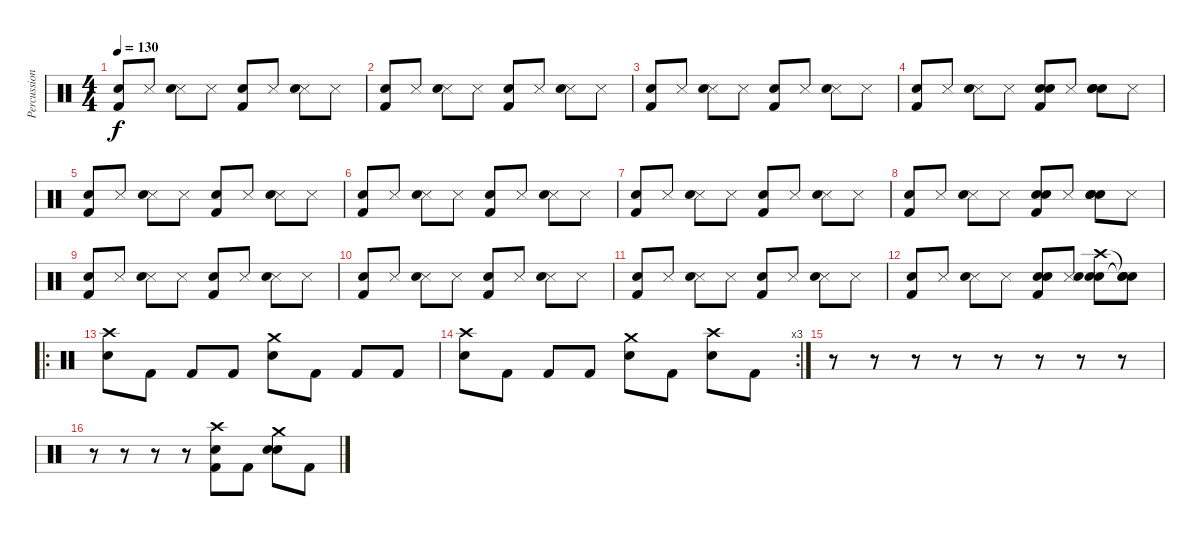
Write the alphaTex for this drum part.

\track ("Percussions" "Percussion") {instrument percussion}
\staff {score}
\articulation defaults
\ts (4 4)
\tempo 130
\clef neutral
\ks c
("Metronome (bell)" "Kick (hit) 2").8{dy f} "Snare (side stick) 3".8 ("Snare (side stick) 3" "Snare (hit) 2").8 "Snare (side stick) 3".8 ("Metronome (bell)" "Kick (hit) 2").8 "Snare (side stick) 3".8 ("Snare (side stick) 3" "Snare (hit) 2").8 "Snare (side stick) 3".8 |
("Metronome (bell)" "Kick (hit) 2").8 "Snare (side stick) 3".8 ("Snare (side stick) 3" "Snare (hit) 2").8 "Snare (side stick) 3".8 ("Metronome (bell)" "Kick (hit) 2").8 "Snare (side stick) 3".8 ("Snare (side stick) 3" "Snare (hit) 2").8 "Snare (side stick) 3".8 |
("Metronome (bell)" "Kick (hit) 2").8 "Snare (side stick) 3".8 ("Snare (side stick) 3" "Snare (hit) 2").8 "Snare (side stick) 3".8 ("Metronome (bell)" "Kick (hit) 2").8 "Snare (side stick) 3".8 ("Snare (side stick) 3" "Snare (hit) 2").8 "Snare (side stick) 3".8 |
("Metronome (bell)" "Kick (hit) 2").8 "Snare (side stick) 3".8 ("Snare (side stick) 3" "Snare (hit) 2").8 "Snare (side stick) 3".8 ("Metronome (bell)" "Metronome (bell)" "Kick (hit) 2").8 "Snare (side stick) 3".8 ("Metronome (bell)" "Metronome (bell)" "Snare (hit) 2").8 "Snare (side stick) 3".8 |
("Metronome (bell)" "Kick (hit) 2").8 "Snare (side stick) 3".8 ("Snare (side stick) 3" "Snare (hit) 2").8 "Snare (side stick) 3".8 ("Metronome (bell)" "Kick (hit) 2").8 "Snare (side stick) 3".8 ("Snare (side stick) 3" "Snare (hit) 2").8 "Snare (side stick) 3".8 |
("Metronome (bell)" "Kick (hit) 2").8 "Snare (side stick) 3".8 ("Snare (side stick) 3" "Snare (hit) 2").8 "Snare (side stick) 3".8 ("Metronome (bell)" "Kick (hit) 2").8 "Snare (side stick) 3".8 ("Snare (side stick) 3" "Snare (hit) 2").8 "Snare (side stick) 3".8 |
("Metronome (bell)" "Kick (hit) 2").8 "Snare (side stick) 3".8 ("Snare (side stick) 3" "Snare (hit) 2").8 "Snare (side stick) 3".8 ("Metronome (bell)" "Kick (hit) 2").8 "Snare (side stick) 3".8 ("Snare (side stick) 3" "Snare (hit) 2").8 "Snare (side stick) 3".8 |
("Metronome (bell)" "Kick (hit) 2").8 "Snare (side stick) 3".8 ("Snare (side stick) 3" "Snare (hit) 2").8 "Snare (side stick) 3".8 ("Metronome (bell)" "Metronome (bell)" "Kick (hit) 2").8 "Snare (side stick) 3".8 ("Metronome (bell)" "Metronome (bell)" "Snare (hit) 2").8 "Snare (side stick) 3".8 |
("Metronome (bell)" "Kick (hit) 2").8 "Snare (side stick) 3".8 ("Snare (side stick) 3" "Snare (hit) 2").8 "Snare (side stick) 3".8 ("Metronome (bell)" "Kick (hit) 2").8 "Snare (side stick) 3".8 ("Snare (side stick) 3" "Snare (hit) 2").8 "Snare (side stick) 3".8 |
("Metronome (bell)" "Kick (hit) 2").8 "Snare (side stick) 3".8 ("Snare (side stick) 3" "Snare (hit) 2").8 "Snare (side stick) 3".8 ("Metronome (bell)" "Kick (hit) 2").8 "Snare (side stick) 3".8 ("Snare (side stick) 3" "Snare (hit) 2").8 "Snare (side stick) 3".8 |
("Metronome (bell)" "Kick (hit) 2").8 "Snare (side stick) 3".8 ("Snare (side stick) 3" "Snare (hit) 2").8 "Snare (side stick) 3".8 ("Metronome (bell)" "Kick (hit) 2").8 "Snare (side stick) 3".8 ("Snare (side stick) 3" "Snare (hit) 2").8 "Snare (side stick) 3".8 |
("Metronome (bell)" "Kick (hit) 2").8 "Snare (side stick) 3".8 ("Snare (side stick) 3" "Snare (hit) 2").8 "Snare (side stick) 3".8 ("Metronome (bell)" "Metronome (bell)" "Kick (hit) 2").8 ("Snare (side stick) 3" "Snare (hit) 2").8 ("Crash high (hit)" "Metronome (bell)" "Snare (hit) 2").8 ("Snare (hit)"{t} "Snare (hit)"{t} "Snare (hit)"{t}).8 |
\ro
("Crash high (hit)" "Snare (hit) 2").8 "Kick (hit) 2".8 "Kick (hit) 2".8 "Kick (hit) 2".8 ("Crash medium (hit)" "Snare (hit) 2").8 "Kick (hit) 2".8 "Kick (hit) 2".8 "Kick (hit) 2".8 |
\rc 3
("Crash high (hit)" "Snare (hit) 2").8 "Kick (hit) 2".8 "Kick (hit) 2".8 "Kick (hit) 2".8 ("Crash medium (hit)" "Snare (hit) 2").8 "Kick (hit) 2".8 ("Crash high (hit)" "Snare (hit) 2").8 "Kick (hit) 2".8 |
r.8 r.8 r.8 r.8 r.8 r.8 r.8 r.8 |
r.8 r.8 r.8 r.8 ("Metronome (bell)" "Crash high (hit)" "Kick (hit) 2").8 "Kick (hit) 2".8 ("Metronome (bell)" "Crash medium (hit)" "Snare (hit) 2").8 "Kick (hit) 2".8
